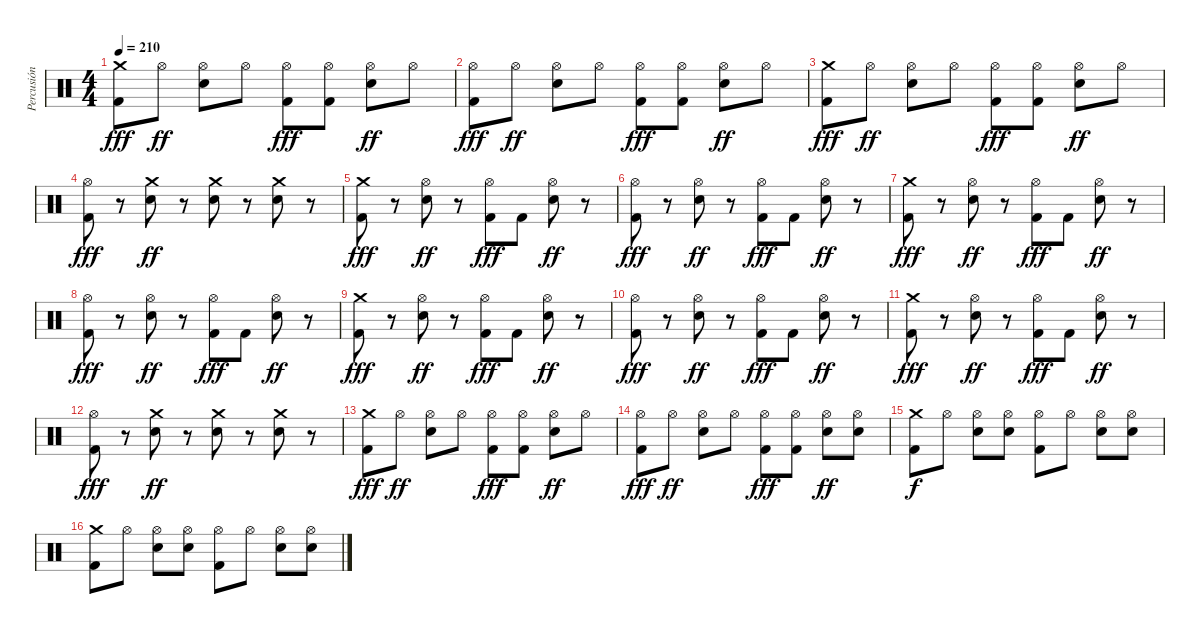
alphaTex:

\track ("Percusión" "Percusión") {instrument percussion}
\staff {score}
\articulation defaults
\ts (4 4)
\tempo 210
\clef neutral
\ks c
("Crash medium (hit)" "Kick (hit) 2").8{dy fff} "Hi-Hat (open)".8{dy ff} ("Hi-Hat (open)" "Electric Snare (hit)").8 "Hi-Hat (open)".8 ("Hi-Hat (open)" "Kick (hit) 2").8{dy fff} ("Hi-Hat (open)" "Kick (hit) 2").8 ("Hi-Hat (open)" "Electric Snare (hit)").8{dy ff} "Hi-Hat (open)".8 |
("Hi-Hat (open)" "Kick (hit) 2").8{dy fff} "Hi-Hat (open)".8{dy ff} ("Hi-Hat (open)" "Electric Snare (hit)").8 "Hi-Hat (open)".8 ("Hi-Hat (open)" "Kick (hit) 2").8{dy fff} ("Hi-Hat (open)" "Kick (hit) 2").8 ("Hi-Hat (open)" "Electric Snare (hit)").8{dy ff} "Hi-Hat (open)".8 |
("Crash medium (hit)" "Kick (hit) 2").8{dy fff} "Hi-Hat (open)".8{dy ff} ("Hi-Hat (open)" "Electric Snare (hit)").8 "Hi-Hat (open)".8 ("Hi-Hat (open)" "Kick (hit) 2").8{dy fff} ("Hi-Hat (open)" "Kick (hit) 2").8 ("Hi-Hat (open)" "Electric Snare (hit)").8{dy ff} "Hi-Hat (open)".8 |
("Hi-Hat (open)" "Kick (hit) 2").8{dy fff} r.8 ("Crash medium (hit)" "Electric Snare (hit)").8{dy ff} r.8 ("Crash medium (hit)" "Electric Snare (hit)").8 r.8 ("Crash medium (hit)" "Electric Snare (hit)").8 r.8 |
("Crash medium (hit)" "Kick (hit) 2").8{dy fff} r.8 ("Hi-Hat (open)" "Electric Snare (hit)").8{dy ff} r.8 ("Hi-Hat (open)" "Kick (hit) 2").8{dy fff} "Kick (hit) 2".8 ("Hi-Hat (open)" "Electric Snare (hit)").8{dy ff} r.8 |
("Hi-Hat (open)" "Kick (hit) 2").8{dy fff} r.8 ("Hi-Hat (open)" "Electric Snare (hit)").8{dy ff} r.8 ("Hi-Hat (open)" "Kick (hit) 2").8{dy fff} "Kick (hit) 2".8 ("Hi-Hat (open)" "Electric Snare (hit)").8{dy ff} r.8 |
("Crash medium (hit)" "Kick (hit) 2").8{dy fff} r.8 ("Hi-Hat (open)" "Electric Snare (hit)").8{dy ff} r.8 ("Hi-Hat (open)" "Kick (hit) 2").8{dy fff} "Kick (hit) 2".8 ("Hi-Hat (open)" "Electric Snare (hit)").8{dy ff} r.8 |
("Hi-Hat (open)" "Kick (hit) 2").8{dy fff} r.8 ("Hi-Hat (open)" "Electric Snare (hit)").8{dy ff} r.8 ("Hi-Hat (open)" "Kick (hit) 2").8{dy fff} "Kick (hit) 2".8 ("Hi-Hat (open)" "Electric Snare (hit)").8{dy ff} r.8 |
("Crash medium (hit)" "Kick (hit) 2").8{dy fff} r.8 ("Hi-Hat (open)" "Electric Snare (hit)").8{dy ff} r.8 ("Hi-Hat (open)" "Kick (hit) 2").8{dy fff} "Kick (hit) 2".8 ("Hi-Hat (open)" "Electric Snare (hit)").8{dy ff} r.8 |
("Hi-Hat (open)" "Kick (hit) 2").8{dy fff} r.8 ("Hi-Hat (open)" "Electric Snare (hit)").8{dy ff} r.8 ("Hi-Hat (open)" "Kick (hit) 2").8{dy fff} "Kick (hit) 2".8 ("Hi-Hat (open)" "Electric Snare (hit)").8{dy ff} r.8 |
("Crash medium (hit)" "Kick (hit) 2").8{dy fff} r.8 ("Hi-Hat (open)" "Electric Snare (hit)").8{dy ff} r.8 ("Hi-Hat (open)" "Kick (hit) 2").8{dy fff} "Kick (hit) 2".8 ("Hi-Hat (open)" "Electric Snare (hit)").8{dy ff} r.8 |
("Hi-Hat (open)" "Kick (hit) 2").8{dy fff} r.8 ("Crash medium (hit)" "Electric Snare (hit)").8{dy ff} r.8 ("Crash medium (hit)" "Electric Snare (hit)").8 r.8 ("Crash medium (hit)" "Electric Snare (hit)").8 r.8 |
("Crash medium (hit)" "Kick (hit) 2").8{dy fff} "Hi-Hat (open)".8{dy ff} ("Hi-Hat (open)" "Electric Snare (hit)").8 "Hi-Hat (open)".8 ("Hi-Hat (open)" "Kick (hit) 2").8{dy fff} ("Hi-Hat (open)" "Kick (hit) 2").8 ("Hi-Hat (open)" "Electric Snare (hit)").8{dy ff} "Hi-Hat (open)".8 |
("Hi-Hat (open)" "Kick (hit) 2").8{dy fff} "Hi-Hat (open)".8{dy ff} ("Hi-Hat (open)" "Electric Snare (hit)").8 "Hi-Hat (open)".8 ("Hi-Hat (open)" "Kick (hit) 2").8{dy fff} ("Hi-Hat (open)" "Kick (hit) 2").8 ("Hi-Hat (open)" "Electric Snare (hit)").8{dy ff} ("Hi-Hat (open)" "Electric Snare (hit)").8 |
("Crash medium (hit)" "Kick (hit) 2").8{dy f} "Hi-Hat (open)".8 ("Hi-Hat (open)" "Electric Snare (hit)").8 ("Hi-Hat (open)" "Electric Snare (hit)").8 ("Hi-Hat (open)" "Kick (hit) 2").8 "Hi-Hat (open)".8 ("Hi-Hat (open)" "Electric Snare (hit)").8 ("Hi-Hat (open)" "Electric Snare (hit)").8 |
("Crash medium (hit)" "Kick (hit) 2").8 "Hi-Hat (open)".8 ("Hi-Hat (open)" "Electric Snare (hit)").8 ("Hi-Hat (open)" "Electric Snare (hit)").8 ("Hi-Hat (open)" "Kick (hit) 2").8 "Hi-Hat (open)".8 ("Hi-Hat (open)" "Electric Snare (hit)").8 ("Hi-Hat (open)" "Electric Snare (hit)").8
